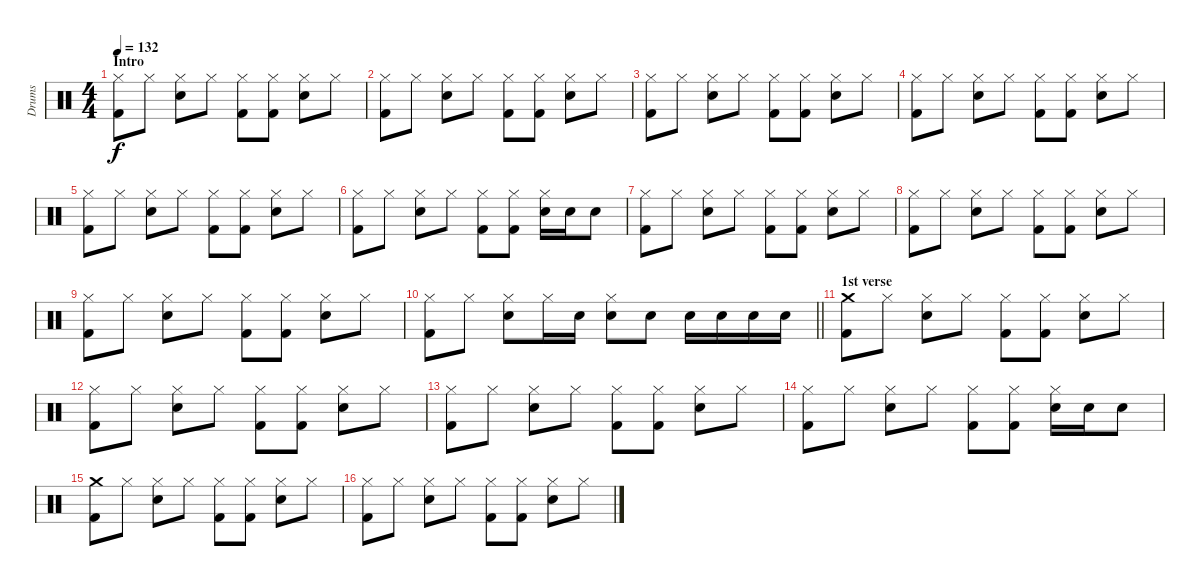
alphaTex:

\track ("Drums" "Drums") {instrument percussion}
\staff {score}
\articulation defaults
\ts (4 4)
\section ("" "Intro")
\tempo 132
\clef neutral
\ks c
("Kick (hit) 2" "Hi-Hat (closed)").8{dy f} "Hi-Hat (closed)".8 ("Snare (hit) 2" "Hi-Hat (closed)").8 "Hi-Hat (closed)".8 ("Kick (hit) 2" "Hi-Hat (closed)").8 ("Kick (hit) 2" "Hi-Hat (closed)").8 ("Snare (hit) 2" "Hi-Hat (closed)").8 "Hi-Hat (closed)".8 |
("Kick (hit) 2" "Hi-Hat (closed)").8 "Hi-Hat (closed)".8 ("Snare (hit) 2" "Hi-Hat (closed)").8 "Hi-Hat (closed)".8 ("Kick (hit) 2" "Hi-Hat (closed)").8 ("Kick (hit) 2" "Hi-Hat (closed)").8 ("Snare (hit) 2" "Hi-Hat (closed)").8 "Hi-Hat (closed)".8 |
("Kick (hit) 2" "Hi-Hat (closed)").8 "Hi-Hat (closed)".8 ("Snare (hit) 2" "Hi-Hat (closed)").8 "Hi-Hat (closed)".8 ("Kick (hit) 2" "Hi-Hat (closed)").8 ("Kick (hit) 2" "Hi-Hat (closed)").8 ("Snare (hit) 2" "Hi-Hat (closed)").8 "Hi-Hat (closed)".8 |
("Kick (hit) 2" "Hi-Hat (closed)").8 "Hi-Hat (closed)".8 ("Snare (hit) 2" "Hi-Hat (closed)").8 "Hi-Hat (closed)".8 ("Kick (hit) 2" "Hi-Hat (closed)").8 ("Kick (hit) 2" "Hi-Hat (closed)").8 ("Snare (hit) 2" "Hi-Hat (closed)").8 "Hi-Hat (closed)".8 |
("Kick (hit) 2" "Hi-Hat (closed)").8 "Hi-Hat (closed)".8 ("Snare (hit) 2" "Hi-Hat (closed)").8 "Hi-Hat (closed)".8 ("Kick (hit) 2" "Hi-Hat (closed)").8 ("Kick (hit) 2" "Hi-Hat (closed)").8 ("Snare (hit) 2" "Hi-Hat (closed)").8 "Hi-Hat (closed)".8 |
("Kick (hit) 2" "Hi-Hat (closed)").8 "Hi-Hat (closed)".8 ("Snare (hit) 2" "Hi-Hat (closed)").8 "Hi-Hat (closed)".8 ("Kick (hit) 2" "Hi-Hat (closed)").8 ("Kick (hit) 2" "Hi-Hat (closed)").8 ("Snare (hit) 2" "Hi-Hat (closed)").16 "Snare (hit) 2".16 "Snare (hit) 2".8 |
("Kick (hit) 2" "Hi-Hat (closed)").8 "Hi-Hat (closed)".8 ("Snare (hit) 2" "Hi-Hat (closed)").8 "Hi-Hat (closed)".8 ("Kick (hit) 2" "Hi-Hat (closed)").8 ("Kick (hit) 2" "Hi-Hat (closed)").8 ("Snare (hit) 2" "Hi-Hat (closed)").8 "Hi-Hat (closed)".8 |
("Kick (hit) 2" "Hi-Hat (closed)").8 "Hi-Hat (closed)".8 ("Snare (hit) 2" "Hi-Hat (closed)").8 "Hi-Hat (closed)".8 ("Kick (hit) 2" "Hi-Hat (closed)").8 ("Kick (hit) 2" "Hi-Hat (closed)").8 ("Snare (hit) 2" "Hi-Hat (closed)").8 "Hi-Hat (closed)".8 |
("Kick (hit) 2" "Hi-Hat (closed)").8 "Hi-Hat (closed)".8 ("Snare (hit) 2" "Hi-Hat (closed)").8 "Hi-Hat (closed)".8 ("Kick (hit) 2" "Hi-Hat (closed)").8 ("Kick (hit) 2" "Hi-Hat (closed)").8 ("Snare (hit) 2" "Hi-Hat (closed)").8 "Hi-Hat (closed)".8 |
\barLineRight lightlight
("Kick (hit) 2" "Hi-Hat (closed)").8 "Hi-Hat (closed)".8 ("Snare (hit) 2" "Hi-Hat (closed)").8 "Hi-Hat (closed)".16 "Snare (hit) 2".16 ("Snare (hit) 2" "Hi-Hat (closed)").8 "Snare (hit) 2".8 "Snare (hit) 2".16 "Snare (hit) 2".16 "Snare (hit) 2".16 "Snare (hit) 2".16 |
\section ("" "1st verse")
("Kick (hit) 2" "Crash medium (hit)").8 "Hi-Hat (closed)".8 ("Snare (hit) 2" "Hi-Hat (closed)").8 "Hi-Hat (closed)".8 ("Kick (hit) 2" "Hi-Hat (closed)").8 ("Kick (hit) 2" "Hi-Hat (closed)").8 ("Snare (hit) 2" "Hi-Hat (closed)").8 "Hi-Hat (closed)".8 |
("Kick (hit) 2" "Hi-Hat (closed)").8 "Hi-Hat (closed)".8 ("Snare (hit) 2" "Hi-Hat (closed)").8 "Hi-Hat (closed)".8 ("Kick (hit) 2" "Hi-Hat (closed)").8 ("Kick (hit) 2" "Hi-Hat (closed)").8 ("Snare (hit) 2" "Hi-Hat (closed)").8 "Hi-Hat (closed)".8 |
("Kick (hit) 2" "Hi-Hat (closed)").8 "Hi-Hat (closed)".8 ("Snare (hit) 2" "Hi-Hat (closed)").8 "Hi-Hat (closed)".8 ("Kick (hit) 2" "Hi-Hat (closed)").8 ("Kick (hit) 2" "Hi-Hat (closed)").8 ("Snare (hit) 2" "Hi-Hat (closed)").8 "Hi-Hat (closed)".8 |
("Kick (hit) 2" "Hi-Hat (closed)").8 "Hi-Hat (closed)".8 ("Snare (hit) 2" "Hi-Hat (closed)").8 "Hi-Hat (closed)".8 ("Kick (hit) 2" "Hi-Hat (closed)").8 ("Kick (hit) 2" "Hi-Hat (closed)").8 ("Snare (hit) 2" "Hi-Hat (closed)").16 "Snare (hit) 2".16 "Snare (hit) 2".8 |
("Kick (hit) 2" "Crash medium (hit)").8 "Hi-Hat (closed)".8 ("Snare (hit) 2" "Hi-Hat (closed)").8 "Hi-Hat (closed)".8 ("Kick (hit) 2" "Hi-Hat (closed)").8 ("Kick (hit) 2" "Hi-Hat (closed)").8 ("Snare (hit) 2" "Hi-Hat (closed)").8 "Hi-Hat (closed)".8 |
("Kick (hit) 2" "Hi-Hat (closed)").8 "Hi-Hat (closed)".8 ("Snare (hit) 2" "Hi-Hat (closed)").8 "Hi-Hat (closed)".8 ("Kick (hit) 2" "Hi-Hat (closed)").8 ("Kick (hit) 2" "Hi-Hat (closed)").8 ("Snare (hit) 2" "Hi-Hat (closed)").8 "Hi-Hat (closed)".8
